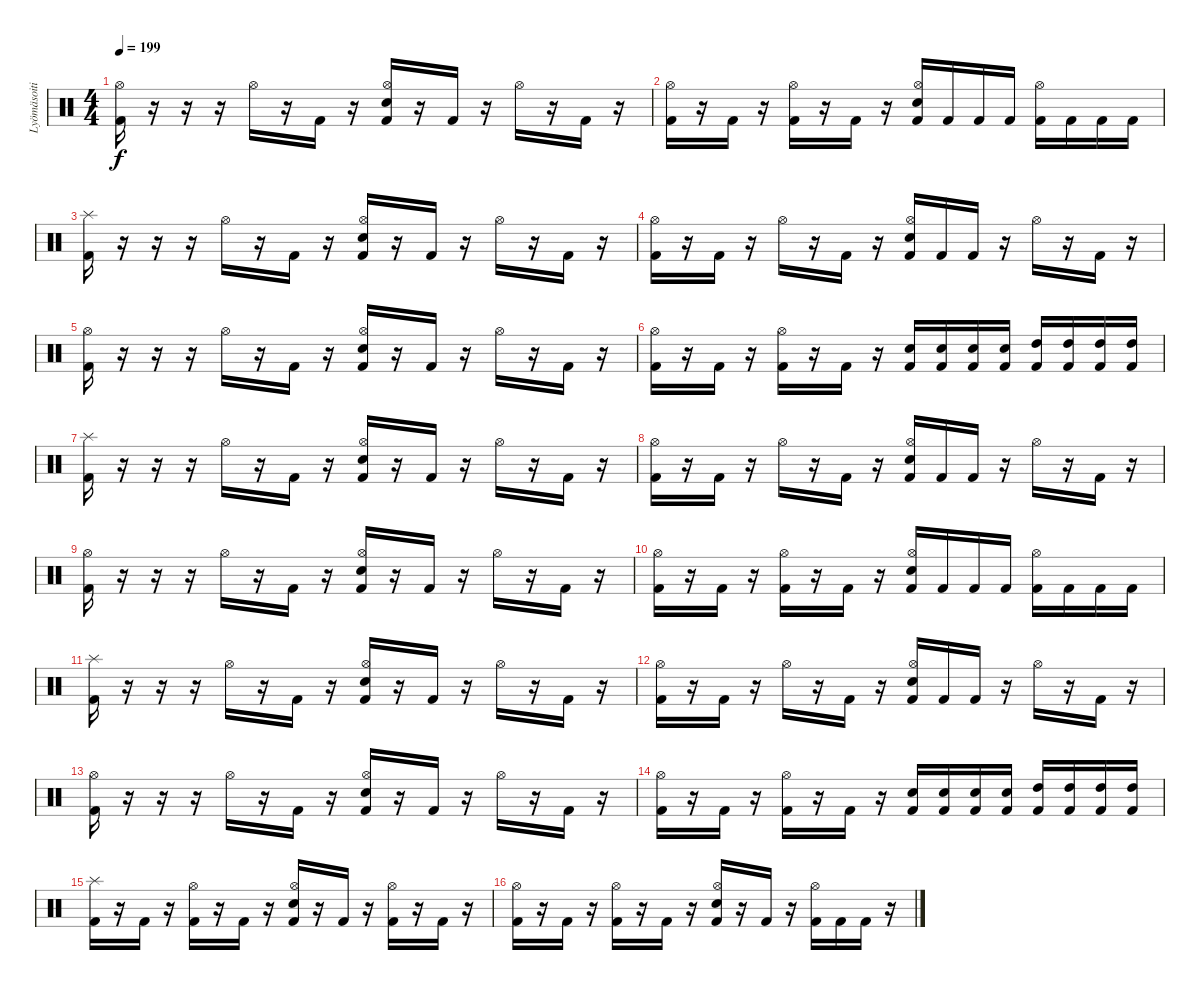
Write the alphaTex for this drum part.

\track ("Lyömäsoitin" "Lyömäsoiti") {instrument percussion}
\staff {score}
\articulation defaults
\ts (4 4)
\tempo 199
\clef neutral
\ks c
("Kick (hit) 2" "Hi-Hat (open)").16{dy f} r.16 r.16 r.16 "Hi-Hat (open)".16 r.16 "Kick (hit) 2".16 r.16 ("Kick (hit) 2" "Hi-Hat (open)" "Snare (hit) 2").16 r.16 "Kick (hit) 2".16 r.16 "Hi-Hat (open)".16 r.16 "Kick (hit) 2".16 r.16 |
("Kick (hit) 2" "Hi-Hat (open)").16 r.16 "Kick (hit) 2".16 r.16 ("Kick (hit) 2" "Hi-Hat (open)").16 r.16 "Kick (hit) 2".16 r.16 ("Kick (hit) 2" "Hi-Hat (open)" "Snare (hit) 2").16 "Kick (hit) 2".16 "Kick (hit) 2".16 "Kick (hit) 2".16 ("Kick (hit) 2" "Hi-Hat (open)").16 "Kick (hit) 2".16 "Kick (hit) 2".16 "Kick (hit) 2".16 |
("Kick (hit) 2" "Splash (hit)").16 r.16 r.16 r.16 "Hi-Hat (open)".16 r.16 "Kick (hit) 2".16 r.16 ("Kick (hit) 2" "Hi-Hat (open)" "Snare (hit) 2").16 r.16 "Kick (hit) 2".16 r.16 "Hi-Hat (open)".16 r.16 "Kick (hit) 2".16 r.16 |
("Kick (hit) 2" "Hi-Hat (open)").16 r.16 "Kick (hit) 2".16 r.16 "Hi-Hat (open)".16 r.16 "Kick (hit) 2".16 r.16 ("Kick (hit) 2" "Hi-Hat (open)" "Snare (hit) 2").16 "Kick (hit) 2".16 "Kick (hit) 2".16 r.16 "Hi-Hat (open)".16 r.16 "Kick (hit) 2".16 r.16 |
("Kick (hit) 2" "Hi-Hat (open)").16 r.16 r.16 r.16 "Hi-Hat (open)".16 r.16 "Kick (hit) 2".16 r.16 ("Kick (hit) 2" "Hi-Hat (open)" "Snare (hit) 2").16 r.16 "Kick (hit) 2".16 r.16 "Hi-Hat (open)".16 r.16 "Kick (hit) 2".16 r.16 |
("Kick (hit) 2" "Hi-Hat (open)").16 r.16 "Kick (hit) 2".16 r.16 ("Kick (hit) 2" "Hi-Hat (open)").16 r.16 "Kick (hit) 2".16 r.16 ("Kick (hit) 2" "Snare (hit) 2").16 ("Kick (hit) 2" "Snare (hit) 2").16 ("Kick (hit) 2" "Snare (hit) 2").16 ("Kick (hit) 2" "Snare (hit) 2").16 ("Kick (hit) 2" "High Tom (hit)").16 ("Kick (hit) 2" "High Tom (hit)").16 ("Kick (hit) 2" "High Tom (hit)").16 ("Kick (hit) 2" "High Tom (hit)").16 |
("Kick (hit) 2" "Splash (hit)").16 r.16 r.16 r.16 "Hi-Hat (open)".16 r.16 "Kick (hit) 2".16 r.16 ("Kick (hit) 2" "Hi-Hat (open)" "Snare (hit) 2").16 r.16 "Kick (hit) 2".16 r.16 "Hi-Hat (open)".16 r.16 "Kick (hit) 2".16 r.16 |
("Kick (hit) 2" "Hi-Hat (open)").16 r.16 "Kick (hit) 2".16 r.16 "Hi-Hat (open)".16 r.16 "Kick (hit) 2".16 r.16 ("Kick (hit) 2" "Hi-Hat (open)" "Snare (hit) 2").16 "Kick (hit) 2".16 "Kick (hit) 2".16 r.16 "Hi-Hat (open)".16 r.16 "Kick (hit) 2".16 r.16 |
("Kick (hit) 2" "Hi-Hat (open)").16 r.16 r.16 r.16 "Hi-Hat (open)".16 r.16 "Kick (hit) 2".16 r.16 ("Kick (hit) 2" "Hi-Hat (open)" "Snare (hit) 2").16 r.16 "Kick (hit) 2".16 r.16 "Hi-Hat (open)".16 r.16 "Kick (hit) 2".16 r.16 |
("Kick (hit) 2" "Hi-Hat (open)").16 r.16 "Kick (hit) 2".16 r.16 ("Kick (hit) 2" "Hi-Hat (open)").16 r.16 "Kick (hit) 2".16 r.16 ("Kick (hit) 2" "Hi-Hat (open)" "Snare (hit) 2").16 "Kick (hit) 2".16 "Kick (hit) 2".16 "Kick (hit) 2".16 ("Kick (hit) 2" "Hi-Hat (open)").16 "Kick (hit) 2".16 "Kick (hit) 2".16 "Kick (hit) 2".16 |
("Kick (hit) 2" "Splash (hit)").16 r.16 r.16 r.16 "Hi-Hat (open)".16 r.16 "Kick (hit) 2".16 r.16 ("Kick (hit) 2" "Hi-Hat (open)" "Snare (hit) 2").16 r.16 "Kick (hit) 2".16 r.16 "Hi-Hat (open)".16 r.16 "Kick (hit) 2".16 r.16 |
("Kick (hit) 2" "Hi-Hat (open)").16 r.16 "Kick (hit) 2".16 r.16 "Hi-Hat (open)".16 r.16 "Kick (hit) 2".16 r.16 ("Kick (hit) 2" "Hi-Hat (open)" "Snare (hit) 2").16 "Kick (hit) 2".16 "Kick (hit) 2".16 r.16 "Hi-Hat (open)".16 r.16 "Kick (hit) 2".16 r.16 |
("Kick (hit) 2" "Hi-Hat (open)").16 r.16 r.16 r.16 "Hi-Hat (open)".16 r.16 "Kick (hit) 2".16 r.16 ("Kick (hit) 2" "Hi-Hat (open)" "Snare (hit) 2").16 r.16 "Kick (hit) 2".16 r.16 "Hi-Hat (open)".16 r.16 "Kick (hit) 2".16 r.16 |
("Kick (hit) 2" "Hi-Hat (open)").16 r.16 "Kick (hit) 2".16 r.16 ("Kick (hit) 2" "Hi-Hat (open)").16 r.16 "Kick (hit) 2".16 r.16 ("Kick (hit) 2" "Snare (hit) 2").16 ("Kick (hit) 2" "Snare (hit) 2").16 ("Kick (hit) 2" "Snare (hit) 2").16 ("Kick (hit) 2" "Snare (hit) 2").16 ("Kick (hit) 2" "High Tom (hit)").16 ("Kick (hit) 2" "High Tom (hit)").16 ("Kick (hit) 2" "High Tom (hit)").16 ("Kick (hit) 2" "High Tom (hit)").16 |
("Kick (hit) 2" "Splash (hit)").16 r.16 "Kick (hit) 2".16 r.16 ("Kick (hit) 2" "Hi-Hat (open)").16 r.16 "Kick (hit) 2".16 r.16 ("Kick (hit) 2" "Hi-Hat (open)" "Snare (hit) 2").16 r.16 "Kick (hit) 2".16 r.16 ("Kick (hit) 2" "Hi-Hat (open)").16 r.16 "Kick (hit) 2".16 r.16 |
("Kick (hit) 2" "Hi-Hat (open)").16 r.16 "Kick (hit) 2".16 r.16 ("Kick (hit) 2" "Hi-Hat (open)").16 r.16 "Kick (hit) 2".16 r.16 ("Kick (hit) 2" "Hi-Hat (open)" "Snare (hit) 2").16 r.16 "Kick (hit) 2".16 r.16 ("Kick (hit) 2" "Hi-Hat (open)").16 "Kick (hit) 2".16 "Kick (hit) 2".16 r.16
